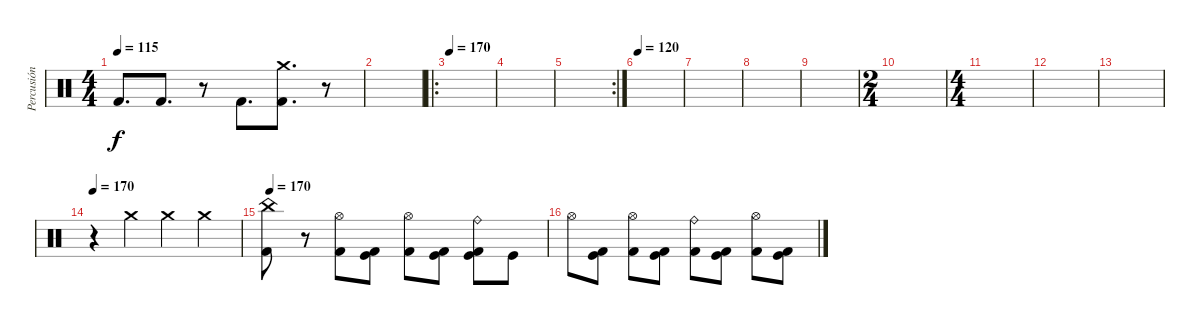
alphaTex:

\track ("Percusión" "Percusión") {instrument percussion}
\staff {score}
\articulation defaults
\ts (4 4)
\tempo 115
\clef neutral
\ks c "Kick (hit) 2".8{d dy f} "Kick (hit) 2".8{d}
r.8 "Kick (hit) 2".8{d} ("Crash medium (hit)" "Kick (hit) 2").8{d} r.8 |
|
\ro
\tempo 170
|
|
\rc 2
|
\tempo 120
|
|
|
|
\ts (2 4)
|
\ts (4 4)
|
|
|
\tempo 170
r.4 "Crash medium (hit)".4 "Crash medium (hit)".4 "Crash medium (hit)".4 |
\tempo 170
("China (hit)" "Kick (hit) 2").8 r.8 ("Hi-Hat (open)" "Kick (hit) 2").8 ("Kick (hit)" "Kick (hit) 2").8 ("Hi-Hat (open)" "Kick (hit) 2").8 ("Kick (hit)" "Kick (hit) 2").8 ("Ride (bell)" "Kick (hit)" "Kick (hit) 2").8 "Kick (hit)".8 |
"Hi-Hat (open)".8 ("Kick (hit)" "Kick (hit) 2").8 ("Hi-Hat (open)" "Kick (hit) 2").8 ("Kick (hit)" "Kick (hit) 2").8 ("Ride (bell)" "Kick (hit) 2").8 ("Kick (hit)" "Kick (hit) 2").8 ("Hi-Hat (open)" "Kick (hit) 2").8 ("Kick (hit)" "Kick (hit) 2").8
